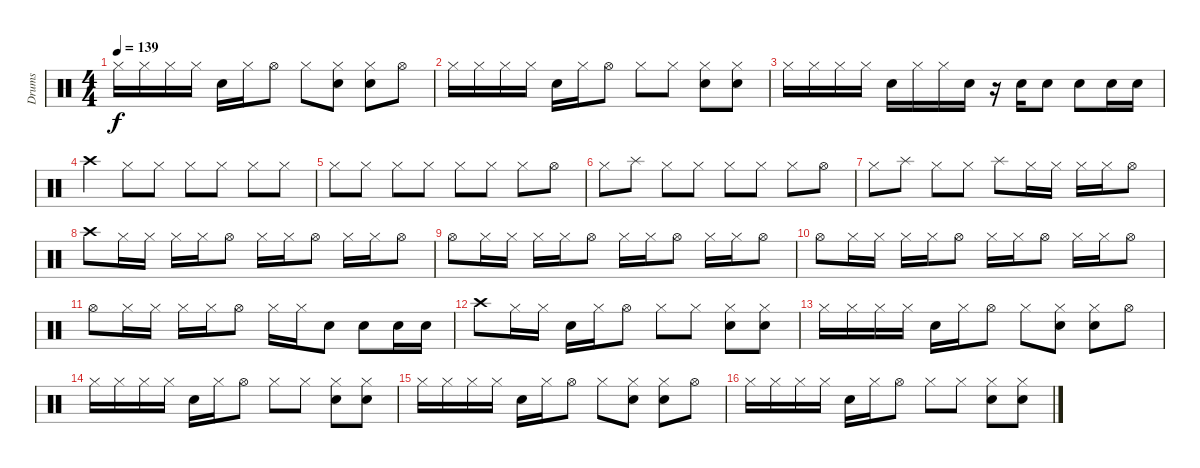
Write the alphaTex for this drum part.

\track ("Drums" "Drums") {instrument percussion}
\staff {score}
\articulation defaults
\ts (4 4)
\tempo 139
\clef neutral
\ks c "Hi-Hat (closed)".16{dy f} "Hi-Hat (closed)".16 "Hi-Hat (closed)".16 "Hi-Hat (closed)".16 "Snare (hit) 2".16 "Hi-Hat (closed)".16 "Hi-Hat (open)".8 "Hi-Hat (closed)".8
("Hi-Hat (closed)" "Snare (hit) 2").8 ("Hi-Hat (closed)" "Snare (hit) 2").8 "Hi-Hat (open)".8 |
"Hi-Hat (closed)".16 "Hi-Hat (closed)".16 "Hi-Hat (closed)".16 "Hi-Hat (closed)".16 "Snare (hit) 2".16 "Hi-Hat (closed)".16 "Hi-Hat (open)".8 "Hi-Hat (closed)".8 "Hi-Hat (closed)".8 ("Hi-Hat (closed)" "Snare (hit) 2").8 ("Hi-Hat (closed)" "Snare (hit) 2").8 |
"Hi-Hat (closed)".16 "Hi-Hat (closed)".16 "Hi-Hat (closed)".16 "Hi-Hat (closed)".16 "Snare (hit) 2".16 "Hi-Hat (closed)".16 "Hi-Hat (closed)".16 "Snare (hit) 2".16 r.16 "Snare (hit) 2".16 "Snare (hit) 2".8 "Snare (hit) 2".8 "Snare (hit) 2".16 "Snare (hit) 2".16 |
"Crash high (hit)".4 "Hi-Hat (closed)".8 "Hi-Hat (closed)".8 "Hi-Hat (closed)".8 "Hi-Hat (closed)".8 "Hi-Hat (closed)".8 "Hi-Hat (closed)".8 |
"Hi-Hat (closed)".8 "Hi-Hat (closed)".8 "Hi-Hat (closed)".8 "Hi-Hat (closed)".8 "Hi-Hat (closed)".8 "Hi-Hat (closed)".8 "Hi-Hat (closed)".8 "Hi-Hat (open)".8 |
"Hi-Hat (closed)".8 "Splash (hit)".8 "Hi-Hat (closed)".8 "Hi-Hat (closed)".8 "Hi-Hat (closed)".8 "Hi-Hat (closed)".8 "Hi-Hat (closed)".8 "Hi-Hat (open)".8 |
"Hi-Hat (closed)".8 "Splash (hit)".8 "Hi-Hat (closed)".8 "Hi-Hat (closed)".8 "Splash (hit)".8 "Hi-Hat (closed)".16 "Hi-Hat (closed)".16 "Hi-Hat (closed)".16 "Hi-Hat (closed)".16 "Hi-Hat (open)".8 |
"Crash high (hit)".8 "Hi-Hat (closed)".16 "Hi-Hat (closed)".16 "Hi-Hat (closed)".16 "Hi-Hat (closed)".16 "Hi-Hat (open)".8 "Hi-Hat (closed)".16 "Hi-Hat (closed)".16 "Hi-Hat (open)".8 "Hi-Hat (closed)".16 "Hi-Hat (closed)".16 "Hi-Hat (open)".8 |
"Hi-Hat (open)".8 "Hi-Hat (closed)".16 "Hi-Hat (closed)".16 "Hi-Hat (closed)".16 "Hi-Hat (closed)".16 "Hi-Hat (open)".8 "Hi-Hat (closed)".16 "Hi-Hat (closed)".16 "Hi-Hat (open)".8 "Hi-Hat (closed)".16 "Hi-Hat (closed)".16 "Hi-Hat (open)".8 |
"Hi-Hat (open)".8 "Hi-Hat (closed)".16 "Hi-Hat (closed)".16 "Hi-Hat (closed)".16 "Hi-Hat (closed)".16 "Hi-Hat (open)".8 "Hi-Hat (closed)".16 "Hi-Hat (closed)".16 "Hi-Hat (open)".8 "Hi-Hat (closed)".16 "Hi-Hat (closed)".16 "Hi-Hat (open)".8 |
"Hi-Hat (open)".8 "Hi-Hat (closed)".16 "Hi-Hat (closed)".16 "Hi-Hat (closed)".16 "Hi-Hat (closed)".16 "Hi-Hat (open)".8 "Hi-Hat (closed)".16 "Hi-Hat (closed)".16 "Snare (hit) 2".8 "Snare (hit) 2".8 "Snare (hit) 2".16 "Snare (hit) 2".16 |
"Crash high (hit)".8 "Hi-Hat (closed)".16 "Hi-Hat (closed)".16 "Snare (hit) 2".16 "Hi-Hat (closed)".16 "Hi-Hat (open)".8 "Hi-Hat (closed)".8 "Hi-Hat (closed)".8 ("Hi-Hat (closed)" "Snare (hit) 2").8 ("Hi-Hat (closed)" "Snare (hit) 2").8 |
"Hi-Hat (closed)".16 "Hi-Hat (closed)".16 "Hi-Hat (closed)".16 "Hi-Hat (closed)".16 "Snare (hit) 2".16 "Hi-Hat (closed)".16 "Hi-Hat (open)".8 "Hi-Hat (closed)".8 ("Hi-Hat (closed)" "Snare (hit) 2").8 ("Hi-Hat (closed)" "Snare (hit) 2").8 "Hi-Hat (open)".8 |
"Hi-Hat (closed)".16 "Hi-Hat (closed)".16 "Hi-Hat (closed)".16 "Hi-Hat (closed)".16 "Snare (hit) 2".16 "Hi-Hat (closed)".16 "Hi-Hat (open)".8 "Hi-Hat (closed)".8 "Hi-Hat (closed)".8 ("Hi-Hat (closed)" "Snare (hit) 2").8 ("Hi-Hat (closed)" "Snare (hit) 2").8 |
"Hi-Hat (closed)".16 "Hi-Hat (closed)".16 "Hi-Hat (closed)".16 "Hi-Hat (closed)".16 "Snare (hit) 2".16 "Hi-Hat (closed)".16 "Hi-Hat (open)".8 "Hi-Hat (closed)".8 ("Hi-Hat (closed)" "Snare (hit) 2").8 ("Hi-Hat (closed)" "Snare (hit) 2").8 "Hi-Hat (open)".8 |
"Hi-Hat (closed)".16 "Hi-Hat (closed)".16 "Hi-Hat (closed)".16 "Hi-Hat (closed)".16 "Snare (hit) 2".16 "Hi-Hat (closed)".16 "Hi-Hat (open)".8 "Hi-Hat (closed)".8 "Hi-Hat (closed)".8 ("Hi-Hat (closed)" "Snare (hit) 2").8 ("Hi-Hat (closed)" "Snare (hit) 2").8
